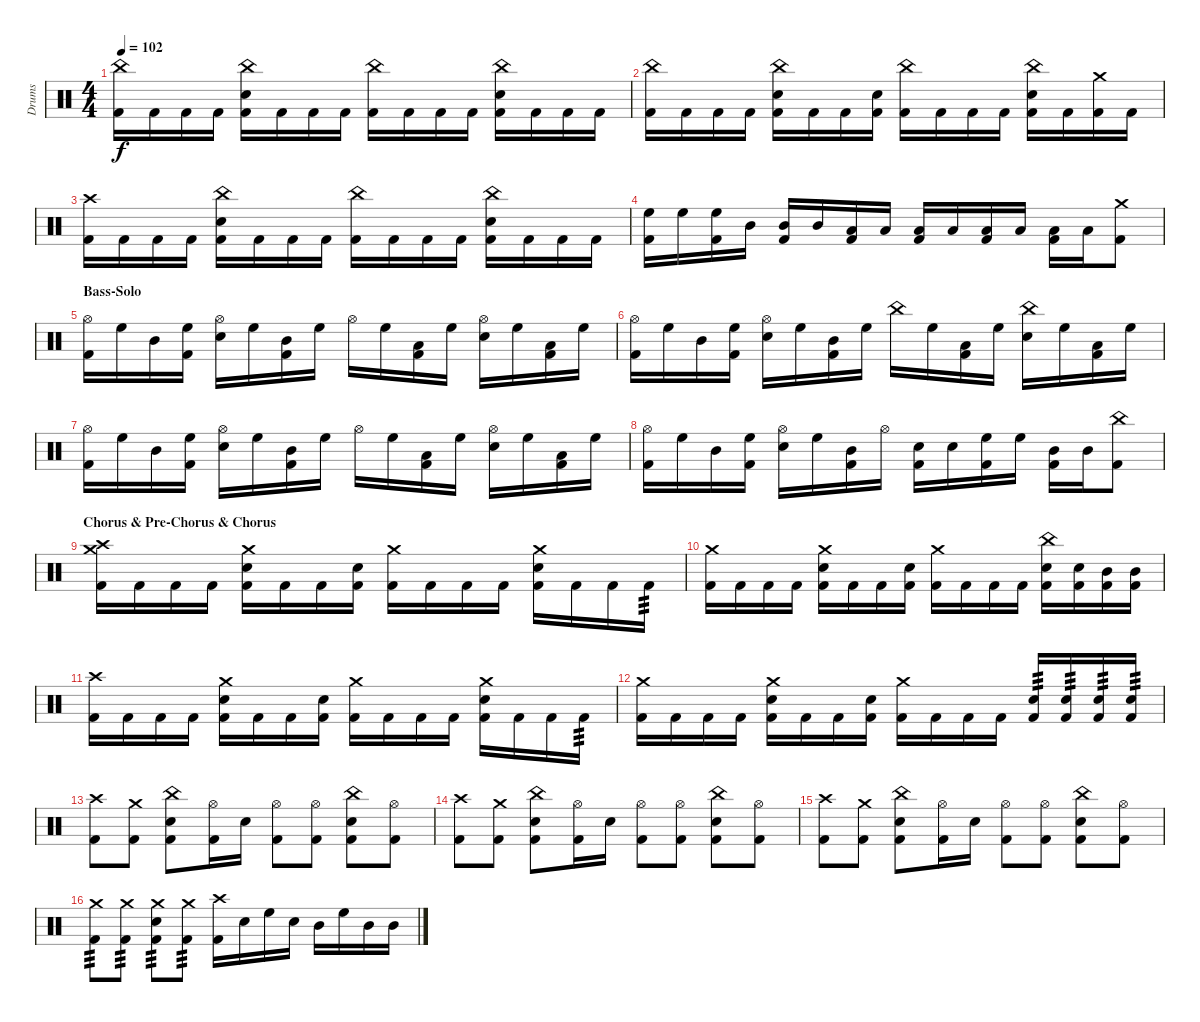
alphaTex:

\track ("Drums" "Drums") {instrument percussion}
\staff {score}
\articulation defaults
\ts (4 4)
\tempo 102
\clef neutral
\ks c
("China (hit)" "Kick (hit) 2").16{dy f} "Kick (hit) 2".16 "Kick (hit) 2".16 "Kick (hit) 2".16 ("China (hit)" "Snare (hit) 2" "Kick (hit) 2").16 "Kick (hit) 2".16 "Kick (hit) 2".16 "Kick (hit) 2".16 ("China (hit)" "Kick (hit) 2").16 "Kick (hit) 2".16 "Kick (hit) 2".16 "Kick (hit) 2".16 ("China (hit)" "Snare (hit) 2" "Kick (hit) 2").16 "Kick (hit) 2".16 "Kick (hit) 2".16 "Kick (hit) 2".16 |
("China (hit)" "Kick (hit) 2").16 "Kick (hit) 2".16 "Kick (hit) 2".16 "Kick (hit) 2".16 ("China (hit)" "Snare (hit) 2" "Kick (hit) 2").16 "Kick (hit) 2".16 "Kick (hit) 2".16 ("Snare (hit) 2" "Kick (hit) 2").16 ("China (hit)" "Kick (hit) 2").16 "Kick (hit) 2".16 "Kick (hit) 2".16 "Kick (hit) 2".16 ("China (hit)" "Snare (hit) 2" "Kick (hit) 2").16 "Kick (hit) 2".16 ("Crash medium (hit)" "Kick (hit) 2").16 "Kick (hit) 2".16 |
("Crash high (hit)" "Kick (hit) 2").16 "Kick (hit) 2".16 "Kick (hit) 2".16 "Kick (hit) 2".16 ("China (hit)" "Snare (hit) 2" "Kick (hit) 2").16 "Kick (hit) 2".16 "Kick (hit) 2".16 "Kick (hit) 2".16 ("China (hit)" "Kick (hit) 2").16 "Kick (hit) 2".16 "Kick (hit) 2".16 "Kick (hit) 2".16 ("China (hit)" "Snare (hit) 2" "Kick (hit) 2").16 "Kick (hit) 2".16 "Kick (hit) 2".16 "Kick (hit) 2".16 |
("High Floor Tom (hit)" "Kick (hit) 2").16 "High Floor Tom (hit)".16 ("High Floor Tom (hit)" "Kick (hit) 2").16 "Mid Tom (hit)".16 ("Mid Tom (hit)" "Kick (hit) 2").16 "Mid Tom (hit)".16 ("Low Tom (hit)" "Kick (hit) 2").16 "Low Tom (hit)".16 ("Low Tom (hit)" "Kick (hit) 2").16 "Low Floor Tom (hit)".16 ("Low Floor Tom (hit)" "Kick (hit) 2").16 "Low Floor Tom (hit)".16 ("Low Floor Tom (hit)" "Kick (hit) 2").16 "Low Floor Tom (hit)".16 ("Crash medium (hit)" "Kick (hit) 2").8 |
\section ("" "Bass-Solo")
("Hi-Hat (open)" "Kick (hit) 2").16 "High Floor Tom (hit)".16 "Mid Tom (hit)".16 ("High Floor Tom (hit)" "Kick (hit) 2").16 ("Hi-Hat (open)" "Snare (hit) 2").16 "High Floor Tom (hit)".16 ("Mid Tom (hit)" "Kick (hit) 2").16 "High Floor Tom (hit)".16 "Hi-Hat (open)".16 "High Floor Tom (hit)".16 ("Low Tom (hit)" "Kick (hit) 2").16 "High Floor Tom (hit)".16 ("Hi-Hat (open)" "Snare (hit) 2").16 "High Floor Tom (hit)".16 ("Low Tom (hit)" "Kick (hit) 2").16 "High Floor Tom (hit)".16 |
("Hi-Hat (open)" "Kick (hit) 2").16 "High Floor Tom (hit)".16 "Mid Tom (hit)".16 ("High Floor Tom (hit)" "Kick (hit) 2").16 ("Hi-Hat (open)" "Snare (hit) 2").16 "High Floor Tom (hit)".16 ("Mid Tom (hit)" "Kick (hit) 2").16 "High Floor Tom (hit)".16 "China (hit)".16 "High Floor Tom (hit)".16 ("Low Tom (hit)" "Kick (hit) 2").16 "High Floor Tom (hit)".16 ("China (hit)" "Snare (hit) 2").16 "High Floor Tom (hit)".16 ("Low Tom (hit)" "Kick (hit) 2").16 "High Floor Tom (hit)".16 |
("Hi-Hat (open)" "Kick (hit) 2").16 "High Floor Tom (hit)".16 "Mid Tom (hit)".16 ("High Floor Tom (hit)" "Kick (hit) 2").16 ("Hi-Hat (open)" "Snare (hit) 2").16 "High Floor Tom (hit)".16 ("Mid Tom (hit)" "Kick (hit) 2").16 "High Floor Tom (hit)".16 "Hi-Hat (open)".16 "High Floor Tom (hit)".16 ("Low Tom (hit)" "Kick (hit) 2").16 "High Floor Tom (hit)".16 ("Hi-Hat (open)" "Snare (hit) 2").16 "High Floor Tom (hit)".16 ("Low Tom (hit)" "Kick (hit) 2").16 "High Floor Tom (hit)".16 |
("Hi-Hat (open)" "Kick (hit) 2").16 "High Floor Tom (hit)".16 "Mid Tom (hit)".16 ("High Floor Tom (hit)" "Kick (hit) 2").16 ("Hi-Hat (open)" "Snare (hit) 2").16 "High Floor Tom (hit)".16 ("Mid Tom (hit)" "Kick (hit) 2").16 "Hi-Hat (open)".16 ("Snare (hit) 2" "Kick (hit) 2").16 "Snare (hit) 2".16 ("High Floor Tom (hit)" "Kick (hit) 2").16 "High Floor Tom (hit)".16 ("Mid Tom (hit)" "Kick (hit) 2").16 "Mid Tom (hit)".16 ("China (hit)" "Kick (hit) 2").8 |
\section ("" "Chorus & Pre-Chorus & Chorus")
("Crash high (hit)" "Crash medium (hit)" "Kick (hit) 2").16 "Kick (hit) 2".16 "Kick (hit) 2".16 "Kick (hit) 2".16 ("Crash medium (hit)" "Snare (hit) 2" "Kick (hit) 2").16 "Kick (hit) 2".16 "Kick (hit) 2".16 ("Snare (hit) 2" "Kick (hit) 2").16 ("Crash medium (hit)" "Kick (hit) 2").16 "Kick (hit) 2".16 "Kick (hit) 2".16 "Kick (hit) 2".16 ("Crash medium (hit)" "Snare (hit) 2" "Kick (hit) 2").16 "Kick (hit) 2".16 "Kick (hit) 2".16 "Kick (hit) 2".16{tp 3} |
("Crash medium (hit)" "Kick (hit) 2").16 "Kick (hit) 2".16 "Kick (hit) 2".16 "Kick (hit) 2".16 ("Crash medium (hit)" "Snare (hit) 2" "Kick (hit) 2").16 "Kick (hit) 2".16 "Kick (hit) 2".16 ("Snare (hit) 2" "Kick (hit) 2").16 ("Crash medium (hit)" "Kick (hit) 2").16 "Kick (hit) 2".16 "Kick (hit) 2".16 "Kick (hit) 2".16 ("China (hit)" "Snare (hit) 2" "Kick (hit) 2").16 ("Snare (hit) 2" "Kick (hit) 2").16 ("Mid Tom (hit)" "Kick (hit) 2").16 ("Mid Tom (hit)" "Kick (hit) 2").16 |
("Crash high (hit)" "Kick (hit) 2").16 "Kick (hit) 2".16 "Kick (hit) 2".16 "Kick (hit) 2".16 ("Crash medium (hit)" "Snare (hit) 2" "Kick (hit) 2").16 "Kick (hit) 2".16 "Kick (hit) 2".16 ("Snare (hit) 2" "Kick (hit) 2").16 ("Crash medium (hit)" "Kick (hit) 2").16 "Kick (hit) 2".16 "Kick (hit) 2".16 "Kick (hit) 2".16 ("Crash medium (hit)" "Snare (hit) 2" "Kick (hit) 2").16 "Kick (hit) 2".16 "Kick (hit) 2".16 "Kick (hit) 2".16{tp 3} |
("Crash medium (hit)" "Kick (hit) 2").16 "Kick (hit) 2".16 "Kick (hit) 2".16 "Kick (hit) 2".16 ("Crash medium (hit)" "Snare (hit) 2" "Kick (hit) 2").16 "Kick (hit) 2".16 "Kick (hit) 2".16 ("Snare (hit) 2" "Kick (hit) 2").16 ("Crash medium (hit)" "Kick (hit) 2").16 "Kick (hit) 2".16 "Kick (hit) 2".16 "Kick (hit) 2".16 ("Snare (hit) 2" "Kick (hit) 2").16{tp 3} ("Snare (hit) 2" "Kick (hit) 2").16{tp 3} ("Snare (hit) 2" "Kick (hit) 2").16{tp 3} ("Snare (hit) 2" "Kick (hit) 2").16{tp 3} |
("Crash high (hit)" "Kick (hit) 2").8 ("Crash medium (hit)" "Kick (hit) 2").8 ("China (hit)" "Snare (hit) 2" "Kick (hit) 2").8 ("Hi-Hat (open)" "Kick (hit) 2").16 "Snare (hit) 2".16 ("Hi-Hat (open)" "Kick (hit) 2").8 ("Hi-Hat (open)" "Kick (hit) 2").8 ("China (hit)" "Snare (hit) 2" "Kick (hit) 2").8 ("Hi-Hat (open)" "Kick (hit) 2").8 |
("Crash high (hit)" "Kick (hit) 2").8 ("Crash medium (hit)" "Kick (hit) 2").8 ("China (hit)" "Snare (hit) 2" "Kick (hit) 2").8 ("Hi-Hat (open)" "Kick (hit) 2").16 "Snare (hit) 2".16 ("Hi-Hat (open)" "Kick (hit) 2").8 ("Hi-Hat (open)" "Kick (hit) 2").8 ("China (hit)" "Snare (hit) 2" "Kick (hit) 2").8 ("Hi-Hat (open)" "Kick (hit) 2").8 |
("Crash high (hit)" "Kick (hit) 2").8 ("Crash medium (hit)" "Kick (hit) 2").8 ("China (hit)" "Snare (hit) 2" "Kick (hit) 2").8 ("Hi-Hat (open)" "Kick (hit) 2").16 "Snare (hit) 2".16 ("Hi-Hat (open)" "Kick (hit) 2").8 ("Hi-Hat (open)" "Kick (hit) 2").8 ("China (hit)" "Snare (hit) 2" "Kick (hit) 2").8 ("Hi-Hat (open)" "Kick (hit) 2").8 |
("Crash medium (hit)" "Kick (hit) 2").8{tp 3} ("Crash medium (hit)" "Kick (hit) 2").8{tp 3} ("Crash medium (hit)" "Snare (hit) 2" "Kick (hit) 2").8{tp 3} ("Crash medium (hit)" "Kick (hit) 2").8{tp 3} ("Crash high (hit)" "Kick (hit) 2").16 "Snare (hit) 2".16 "High Floor Tom (hit)".16 "Snare (hit) 2".16 "Mid Tom (hit)".16 "High Floor Tom (hit)".16 "Mid Tom (hit)".16 "Mid Tom (hit)".16
